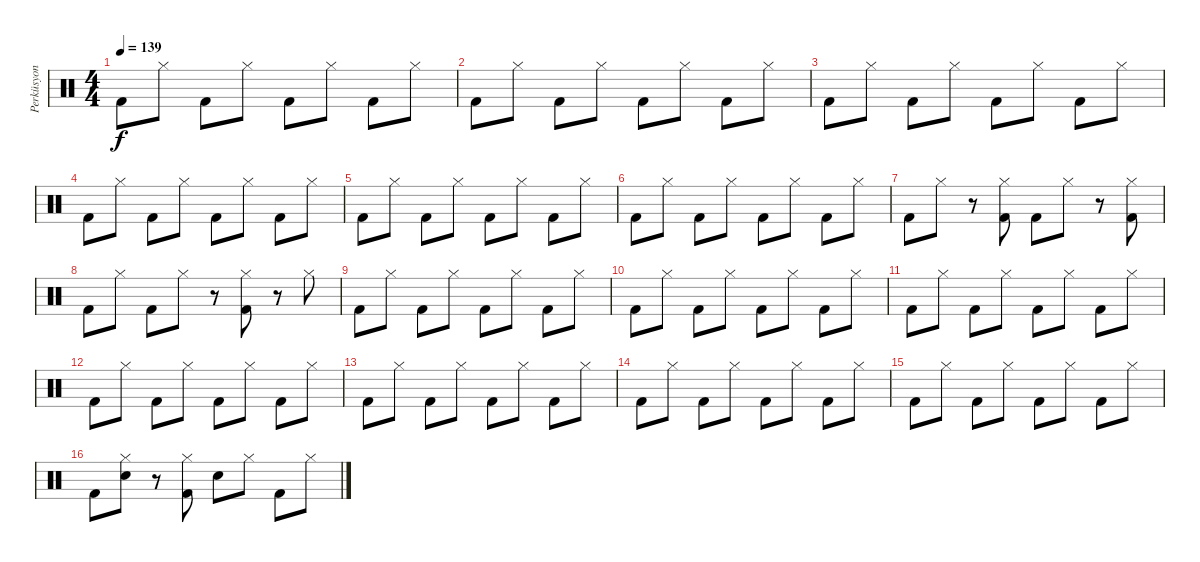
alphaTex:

\track ("Perküsyon" "Perküsyon") {instrument percussion}
\staff {score}
\articulation defaults
\ts (4 4)
\tempo 139
\clef neutral
\ks c "Kick (hit) 2".8{dy f} "Hi-Hat (closed)".8 "Kick (hit) 2".8 "Hi-Hat (closed)".8 "Kick (hit) 2".8 "Hi-Hat (closed)".8 "Kick (hit) 2".8 "Hi-Hat (closed)".8
|
"Kick (hit) 2".8 "Hi-Hat (closed)".8 "Kick (hit) 2".8 "Hi-Hat (closed)".8 "Kick (hit) 2".8 "Hi-Hat (closed)".8 "Kick (hit) 2".8 "Hi-Hat (closed)".8 |
"Kick (hit) 2".8 "Hi-Hat (closed)".8 "Kick (hit) 2".8 "Hi-Hat (closed)".8 "Kick (hit) 2".8 "Hi-Hat (closed)".8 "Kick (hit) 2".8 "Hi-Hat (closed)".8 |
"Kick (hit) 2".8 "Hi-Hat (closed)".8 "Kick (hit) 2".8 "Hi-Hat (closed)".8 "Kick (hit) 2".8 "Hi-Hat (closed)".8 "Kick (hit) 2".8 "Hi-Hat (closed)".8 |
"Kick (hit) 2".8 "Hi-Hat (closed)".8 "Kick (hit) 2".8 "Hi-Hat (closed)".8 "Kick (hit) 2".8 "Hi-Hat (closed)".8 "Kick (hit) 2".8 "Hi-Hat (closed)".8 |
"Kick (hit) 2".8 "Hi-Hat (closed)".8 "Kick (hit) 2".8 "Hi-Hat (closed)".8 "Kick (hit) 2".8 "Hi-Hat (closed)".8 "Kick (hit) 2".8 "Hi-Hat (closed)".8 |
"Kick (hit) 2".8 "Hi-Hat (closed)".8 r.8 ("Hi-Hat (closed)" "Kick (hit) 2").8 "Kick (hit) 2".8 "Hi-Hat (closed)".8 r.8 ("Hi-Hat (closed)" "Kick (hit) 2").8 |
"Kick (hit) 2".8 "Hi-Hat (closed)".8 "Kick (hit) 2".8 "Hi-Hat (closed)".8 r.8 ("Hi-Hat (closed)" "Kick (hit) 2").8 r.8 "Hi-Hat (closed)".8 |
"Kick (hit) 2".8 "Hi-Hat (closed)".8 "Kick (hit) 2".8 "Hi-Hat (closed)".8 "Kick (hit) 2".8 "Hi-Hat (closed)".8 "Kick (hit) 2".8 "Hi-Hat (closed)".8 |
"Kick (hit) 2".8 "Hi-Hat (closed)".8 "Kick (hit) 2".8 "Hi-Hat (closed)".8 "Kick (hit) 2".8 "Hi-Hat (closed)".8 "Kick (hit) 2".8 "Hi-Hat (closed)".8 |
"Kick (hit) 2".8 "Hi-Hat (closed)".8 "Kick (hit) 2".8 "Hi-Hat (closed)".8 "Kick (hit) 2".8 "Hi-Hat (closed)".8 "Kick (hit) 2".8 "Hi-Hat (closed)".8 |
"Kick (hit) 2".8 "Hi-Hat (closed)".8 "Kick (hit) 2".8 "Hi-Hat (closed)".8 "Kick (hit) 2".8 "Hi-Hat (closed)".8 "Kick (hit) 2".8 "Hi-Hat (closed)".8 |
"Kick (hit) 2".8 "Hi-Hat (closed)".8 "Kick (hit) 2".8 "Hi-Hat (closed)".8 "Kick (hit) 2".8 "Hi-Hat (closed)".8 "Kick (hit) 2".8 "Hi-Hat (closed)".8 |
"Kick (hit) 2".8 "Hi-Hat (closed)".8 "Kick (hit) 2".8 "Hi-Hat (closed)".8 "Kick (hit) 2".8 "Hi-Hat (closed)".8 "Kick (hit) 2".8 "Hi-Hat (closed)".8 |
"Kick (hit) 2".8 "Hi-Hat (closed)".8 "Kick (hit) 2".8 "Hi-Hat (closed)".8 "Kick (hit) 2".8 "Hi-Hat (closed)".8 "Kick (hit) 2".8 "Hi-Hat (closed)".8 |
"Kick (hit) 2".8 ("Hi-Hat (closed)" "Snare (hit) 2").8 r.8 ("Hi-Hat (closed)" "Kick (hit) 2").8 "Snare (hit) 2".8 "Hi-Hat (closed)".8 "Kick (hit) 2".8 "Hi-Hat (closed)".8
